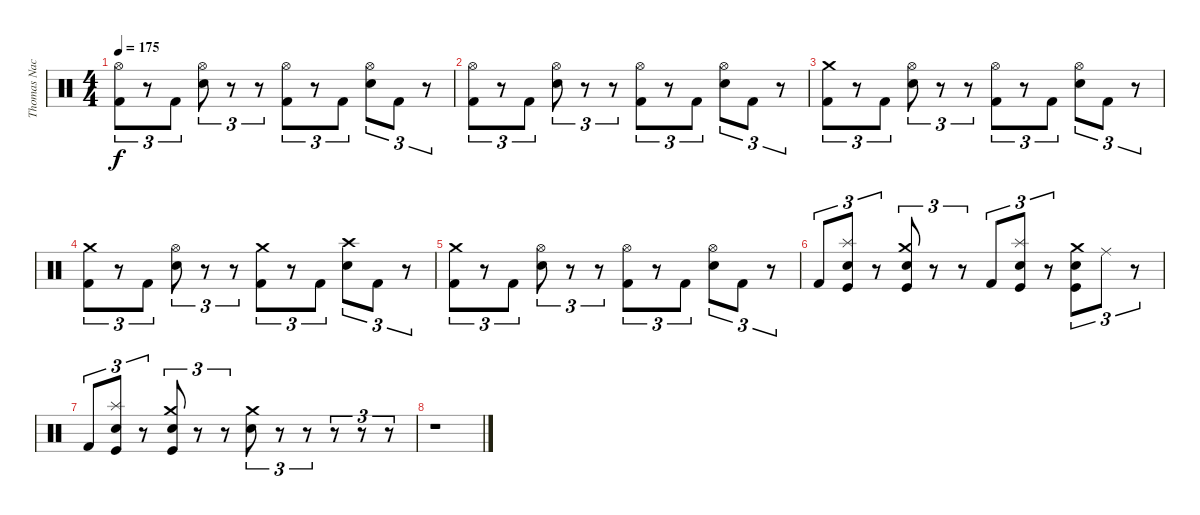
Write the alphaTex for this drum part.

\track ("Thomas Nack" "Thomas Nac") {instrument percussion}
\staff {score}
\articulation defaults
\ts (4 4)
\tempo 175
\clef neutral
\ks c
("Hi-Hat (open)" "Kick (hit) 2").8{tu (3 2) dy f} r.8{tu (3 2)} "Kick (hit) 2".8{tu (3 2)} ("Hi-Hat (open)" "Electric Snare (hit)").8{tu (3 2)} r.8{tu (3 2)} r.8{tu (3 2)} ("Hi-Hat (open)" "Kick (hit) 2").8{tu (3 2)} r.8{tu (3 2)} "Kick (hit) 2".8{tu (3 2)} ("Hi-Hat (open)" "Electric Snare (hit)").8{tu (3 2)} "Kick (hit) 2".8{tu (3 2)} r.8{tu (3 2)} |
("Hi-Hat (open)" "Kick (hit) 2").8{tu (3 2)} r.8{tu (3 2)} "Kick (hit) 2".8{tu (3 2)} ("Hi-Hat (open)" "Electric Snare (hit)").8{tu (3 2)} r.8{tu (3 2)} r.8{tu (3 2)} ("Hi-Hat (open)" "Kick (hit) 2").8{tu (3 2)} r.8{tu (3 2)} "Kick (hit) 2".8{tu (3 2)} ("Hi-Hat (open)" "Electric Snare (hit)").8{tu (3 2)} "Kick (hit) 2".8{tu (3 2)} r.8{tu (3 2)} |
("Crash medium (hit)" "Kick (hit) 2").8{tu (3 2)} r.8{tu (3 2)} "Kick (hit) 2".8{tu (3 2)} ("Hi-Hat (open)" "Electric Snare (hit)").8{tu (3 2)} r.8{tu (3 2)} r.8{tu (3 2)} ("Hi-Hat (open)" "Kick (hit) 2").8{tu (3 2)} r.8{tu (3 2)} "Kick (hit) 2".8{tu (3 2)} ("Hi-Hat (open)" "Electric Snare (hit)").8{tu (3 2)} "Kick (hit) 2".8{tu (3 2)} r.8{tu (3 2)} |
("Crash medium (hit)" "Kick (hit) 2").8{tu (3 2)} r.8{tu (3 2)} "Kick (hit) 2".8{tu (3 2)} ("Hi-Hat (open)" "Electric Snare (hit)").8{tu (3 2)} r.8{tu (3 2)} r.8{tu (3 2)} ("Crash medium (hit)" "Kick (hit) 2").8{tu (3 2)} r.8{tu (3 2)} "Kick (hit) 2".8{tu (3 2)} ("Crash high (hit)" "Electric Snare (hit)").8{tu (3 2)} "Kick (hit) 2".8{tu (3 2)} r.8{tu (3 2)} |
("Crash medium (hit)" "Kick (hit) 2").8{tu (3 2)} r.8{tu (3 2)} "Kick (hit) 2".8{tu (3 2)} ("Hi-Hat (open)" "Electric Snare (hit)").8{tu (3 2)} r.8{tu (3 2)} r.8{tu (3 2)} ("Hi-Hat (open)" "Kick (hit) 2").8{tu (3 2)} r.8{tu (3 2)} "Kick (hit) 2".8{tu (3 2)} ("Hi-Hat (open)" "Electric Snare (hit)").8{tu (3 2)} "Kick (hit) 2".8{tu (3 2)} r.8{tu (3 2)} |
"Kick (hit) 2".8{tu (3 2)} ("Splash (hit)" "Electric Snare (hit)" "Kick (hit)").8{tu (3 2)} r.8{tu (3 2)} ("Crash medium (hit)" "Electric Snare (hit)" "Kick (hit)").8{tu (3 2)} r.8{tu (3 2)} r.8{tu (3 2)} "Kick (hit) 2".8{tu (3 2)} ("Splash (hit)" "Electric Snare (hit)" "Kick (hit)").8{tu (3 2)} r.8{tu (3 2)} ("Crash medium (hit)" "Electric Snare (hit)" "Kick (hit)").8{tu (3 2)} "Ride (middle)".8{tu (3 2)} r.8{tu (3 2)} |
"Kick (hit) 2".8{tu (3 2)} ("Splash (hit)" "Electric Snare (hit)" "Kick (hit)").8{tu (3 2)} r.8{tu (3 2)} ("Crash medium (hit)" "Electric Snare (hit)" "Kick (hit)").8{tu (3 2)} r.8{tu (3 2)} r.8{tu (3 2)} ("Crash medium (hit)" "Electric Snare (hit)").8{tu (3 2)} r.8{tu (3 2)} r.8{tu (3 2)} r.8{tu (3 2)} r.8{tu (3 2)} r.8{tu (3 2)} |
r.1
